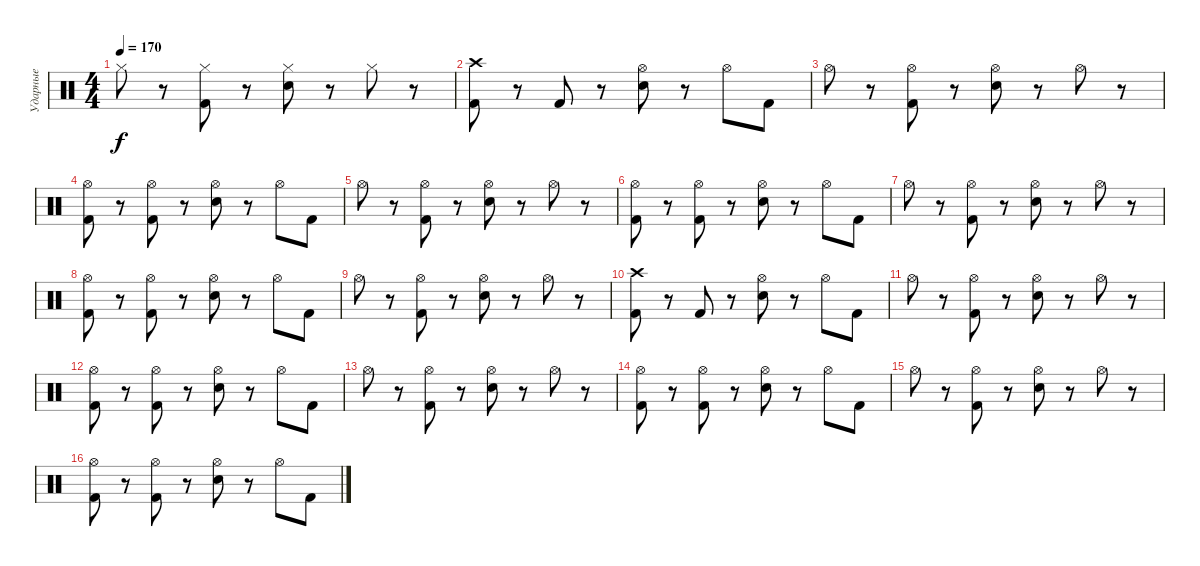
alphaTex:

\track ("Ударные" "Ударные") {instrument percussion}
\staff {score}
\articulation defaults
\ts (4 4)
\tempo 170
\clef neutral
\ks c "Hi-Hat (closed)".8{dy f}
r.8 ("Hi-Hat (closed)" "Kick (hit) 2").8 r.8 ("Hi-Hat (closed)" "Electric Snare (hit)").8 r.8 "Hi-Hat (closed)".8 r.8 |
("Crash high (hit)" "Kick (hit) 2").8 r.8 "Kick (hit) 2".8 r.8 ("Hi-Hat (open)" "Electric Snare (hit)").8 r.8 "Hi-Hat (open)".8 "Kick (hit) 2".8 |
"Hi-Hat (open)".8 r.8 ("Hi-Hat (open)" "Kick (hit) 2").8 r.8 ("Hi-Hat (open)" "Electric Snare (hit)").8 r.8 "Hi-Hat (open)".8 r.8 |
("Hi-Hat (open)" "Kick (hit) 2").8 r.8 ("Hi-Hat (open)" "Kick (hit) 2").8 r.8 ("Hi-Hat (open)" "Electric Snare (hit)").8 r.8 "Hi-Hat (open)".8 "Kick (hit) 2".8 |
"Hi-Hat (open)".8 r.8 ("Hi-Hat (open)" "Kick (hit) 2").8 r.8 ("Hi-Hat (open)" "Electric Snare (hit)").8 r.8 "Hi-Hat (open)".8 r.8 |
("Hi-Hat (open)" "Kick (hit) 2").8 r.8 ("Hi-Hat (open)" "Kick (hit) 2").8 r.8 ("Hi-Hat (open)" "Electric Snare (hit)").8 r.8 "Hi-Hat (open)".8 "Kick (hit) 2".8 |
"Hi-Hat (open)".8 r.8 ("Hi-Hat (open)" "Kick (hit) 2").8 r.8 ("Hi-Hat (open)" "Electric Snare (hit)").8 r.8 "Hi-Hat (open)".8 r.8 |
("Hi-Hat (open)" "Kick (hit) 2").8 r.8 ("Hi-Hat (open)" "Kick (hit) 2").8 r.8 ("Hi-Hat (open)" "Electric Snare (hit)").8 r.8 "Hi-Hat (open)".8 "Kick (hit) 2".8 |
"Hi-Hat (open)".8 r.8 ("Hi-Hat (open)" "Kick (hit) 2").8 r.8 ("Hi-Hat (open)" "Electric Snare (hit)").8 r.8 "Hi-Hat (open)".8 r.8 |
("Crash high (hit)" "Kick (hit) 2").8 r.8 "Kick (hit) 2".8 r.8 ("Hi-Hat (open)" "Electric Snare (hit)").8 r.8 "Hi-Hat (open)".8 "Kick (hit) 2".8 |
"Hi-Hat (open)".8 r.8 ("Hi-Hat (open)" "Kick (hit) 2").8 r.8 ("Hi-Hat (open)" "Electric Snare (hit)").8 r.8 "Hi-Hat (open)".8 r.8 |
("Hi-Hat (open)" "Kick (hit) 2").8 r.8 ("Hi-Hat (open)" "Kick (hit) 2").8 r.8 ("Hi-Hat (open)" "Electric Snare (hit)").8 r.8 "Hi-Hat (open)".8 "Kick (hit) 2".8 |
"Hi-Hat (open)".8 r.8 ("Hi-Hat (open)" "Kick (hit) 2").8 r.8 ("Hi-Hat (open)" "Electric Snare (hit)").8 r.8 "Hi-Hat (open)".8 r.8 |
("Hi-Hat (open)" "Kick (hit) 2").8 r.8 ("Hi-Hat (open)" "Kick (hit) 2").8 r.8 ("Hi-Hat (open)" "Electric Snare (hit)").8 r.8 "Hi-Hat (open)".8 "Kick (hit) 2".8 |
"Hi-Hat (open)".8 r.8 ("Hi-Hat (open)" "Kick (hit) 2").8 r.8 ("Hi-Hat (open)" "Electric Snare (hit)").8 r.8 "Hi-Hat (open)".8 r.8 |
("Hi-Hat (open)" "Kick (hit) 2").8 r.8 ("Hi-Hat (open)" "Kick (hit) 2").8 r.8 ("Hi-Hat (open)" "Electric Snare (hit)").8 r.8 "Hi-Hat (open)".8 "Kick (hit) 2".8
